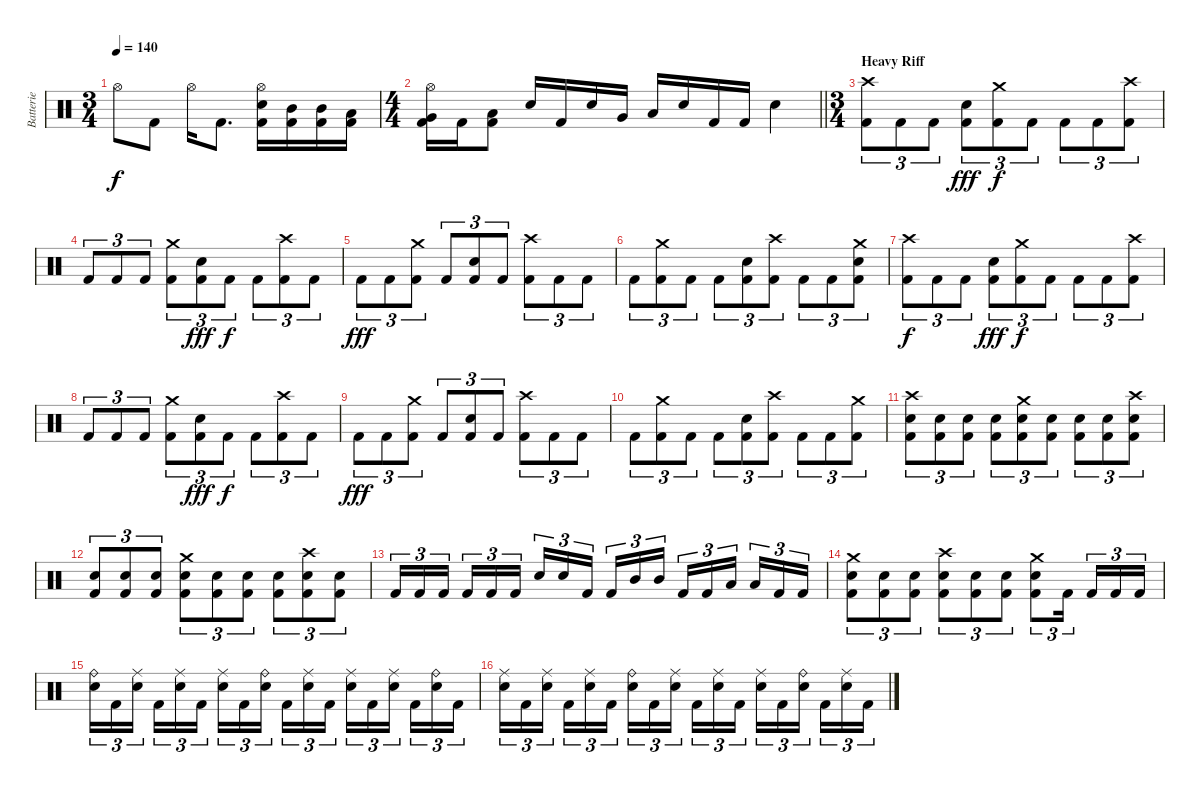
\track ("Batterie" "Batterie") {instrument percussion}
\staff {score}
\articulation defaults
\ts (3 4)
\tempo 140
\clef neutral
\ks c "Hi-Hat (open)".8{dy f} "Kick (hit) 2".8 "Hi-Hat (open)".16 "Kick (hit) 2".8{d}
("Hi-Hat (open)" "Electric Snare (hit)" "Kick (hit) 2").16 ("Mid Tom (hit)" "Kick (hit) 2").16 ("Mid Tom (hit)" "Kick (hit) 2").16 ("Low Tom (hit)" "Kick (hit) 2").16 |
\ts (4 4)
\barLineRight lightlight
("Hi-Hat (open)" "Very Low Tom (hit)" "Kick (hit) 2").16 "Kick (hit) 2".16 ("Low Floor Tom (hit)" "Kick (hit) 2").8 "Electric Snare (hit)".16 "Kick (hit) 2".16 "Electric Snare (hit)".16 "Very Low Tom (hit)".16 "Low Floor Tom (hit)".16 "Electric Snare (hit)".16 "Kick (hit) 2".16 "Kick (hit) 2".16 "Electric Snare (hit)".4 |
\ts (3 4)
\section ("" "Heavy Riff")
("Crash high (hit)" "Kick (hit) 2").8{tu (3 2)} "Kick (hit) 2".8{tu (3 2)} "Kick (hit) 2".8{tu (3 2)} ("Electric Snare (hit)" "Kick (hit) 2").8{tu (3 2) dy fff} ("Crash medium (hit)" "Kick (hit) 2").8{tu (3 2) dy f} "Kick (hit) 2".8{tu (3 2)} "Kick (hit) 2".8{tu (3 2)} "Kick (hit) 2".8{tu (3 2)} ("Crash high (hit)" "Kick (hit) 2").8{tu (3 2)} |
"Kick (hit) 2".8{tu (3 2)} "Kick (hit) 2".8{tu (3 2)} "Kick (hit) 2".8{tu (3 2)} ("Crash medium (hit)" "Kick (hit) 2").8{tu (3 2)} ("Electric Snare (hit)" "Kick (hit) 2").8{tu (3 2) dy fff} "Kick (hit) 2".8{tu (3 2) dy f} "Kick (hit) 2".8{tu (3 2)} ("Crash high (hit)" "Kick (hit) 2").8{tu (3 2)} "Kick (hit) 2".8{tu (3 2)} |
"Kick (hit) 2".8{tu (3 2) dy fff} "Kick (hit) 2".8{tu (3 2)} ("Crash medium (hit)" "Kick (hit) 2").8{tu (3 2)} "Kick (hit) 2".8{tu (3 2)} ("Electric Snare (hit)" "Kick (hit) 2").8{tu (3 2)} "Kick (hit) 2".8{tu (3 2)} ("Crash high (hit)" "Kick (hit) 2").8{tu (3 2)} "Kick (hit) 2".8{tu (3 2)} "Kick (hit) 2".8{tu (3 2)} |
"Kick (hit) 2".8{tu (3 2)} ("Crash medium (hit)" "Kick (hit) 2").8{tu (3 2)} "Kick (hit) 2".8{tu (3 2)} "Kick (hit) 2".8{tu (3 2)} ("Electric Snare (hit)" "Kick (hit) 2").8{tu (3 2)} ("Crash high (hit)" "Kick (hit) 2").8{tu (3 2)} "Kick (hit) 2".8{tu (3 2)} "Kick (hit) 2".8{tu (3 2)} ("Crash medium (hit)" "Electric Snare (hit)" "Kick (hit) 2").8{tu (3 2)} |
("Crash high (hit)" "Kick (hit) 2").8{tu (3 2) dy f} "Kick (hit) 2".8{tu (3 2)} "Kick (hit) 2".8{tu (3 2)} ("Electric Snare (hit)" "Kick (hit) 2").8{tu (3 2) dy fff} ("Crash medium (hit)" "Kick (hit) 2").8{tu (3 2) dy f} "Kick (hit) 2".8{tu (3 2)} "Kick (hit) 2".8{tu (3 2)} "Kick (hit) 2".8{tu (3 2)} ("Crash high (hit)" "Kick (hit) 2").8{tu (3 2)} |
"Kick (hit) 2".8{tu (3 2)} "Kick (hit) 2".8{tu (3 2)} "Kick (hit) 2".8{tu (3 2)} ("Crash medium (hit)" "Kick (hit) 2").8{tu (3 2)} ("Electric Snare (hit)" "Kick (hit) 2").8{tu (3 2) dy fff} "Kick (hit) 2".8{tu (3 2) dy f} "Kick (hit) 2".8{tu (3 2)} ("Crash high (hit)" "Kick (hit) 2").8{tu (3 2)} "Kick (hit) 2".8{tu (3 2)} |
"Kick (hit) 2".8{tu (3 2) dy fff} "Kick (hit) 2".8{tu (3 2)} ("Crash medium (hit)" "Kick (hit) 2").8{tu (3 2)} "Kick (hit) 2".8{tu (3 2)} ("Electric Snare (hit)" "Kick (hit) 2").8{tu (3 2)} "Kick (hit) 2".8{tu (3 2)} ("Crash high (hit)" "Kick (hit) 2").8{tu (3 2)} "Kick (hit) 2".8{tu (3 2)} "Kick (hit) 2".8{tu (3 2)} |
"Kick (hit) 2".8{tu (3 2)} ("Crash medium (hit)" "Kick (hit) 2").8{tu (3 2)} "Kick (hit) 2".8{tu (3 2)} "Kick (hit) 2".8{tu (3 2)} ("Electric Snare (hit)" "Kick (hit) 2").8{tu (3 2)} ("Crash high (hit)" "Kick (hit) 2").8{tu (3 2)} "Kick (hit) 2".8{tu (3 2)} "Kick (hit) 2".8{tu (3 2)} ("Crash medium (hit)" "Kick (hit) 2").8{tu (3 2)} |
("Crash high (hit)" "Electric Snare (hit)" "Kick (hit) 2").8{tu (3 2)} ("Electric Snare (hit)" "Kick (hit) 2").8{tu (3 2)} ("Electric Snare (hit)" "Kick (hit) 2").8{tu (3 2)} ("Electric Snare (hit)" "Kick (hit) 2").8{tu (3 2)} ("Crash medium (hit)" "Electric Snare (hit)" "Kick (hit) 2").8{tu (3 2)} ("Electric Snare (hit)" "Kick (hit) 2").8{tu (3 2)} ("Electric Snare (hit)" "Kick (hit) 2").8{tu (3 2)} ("Electric Snare (hit)" "Kick (hit) 2").8{tu (3 2)} ("Crash high (hit)" "Electric Snare (hit)" "Kick (hit) 2").8{tu (3 2)} |
("Electric Snare (hit)" "Kick (hit) 2").8{tu (3 2)} ("Electric Snare (hit)" "Kick (hit) 2").8{tu (3 2)} ("Electric Snare (hit)" "Kick (hit) 2").8{tu (3 2)} ("Crash medium (hit)" "Electric Snare (hit)" "Kick (hit) 2").8{tu (3 2)} ("Electric Snare (hit)" "Kick (hit) 2").8{tu (3 2)} ("Electric Snare (hit)" "Kick (hit) 2").8{tu (3 2)} ("Electric Snare (hit)" "Kick (hit) 2").8{tu (3 2)} ("Crash high (hit)" "Electric Snare (hit)" "Kick (hit) 2").8{tu (3 2)} ("Electric Snare (hit)" "Kick (hit) 2").8{tu (3 2)} |
"Kick (hit) 2".16{tu (3 2)} "Kick (hit) 2".16{tu (3 2)} "Kick (hit) 2".16{tu (3 2) beam splitsecondary} "Kick (hit) 2".16{tu (3 2)} "Kick (hit) 2".16{tu (3 2)} "Kick (hit) 2".16{tu (3 2)} "Electric Snare (hit)".16{tu (3 2)} "Electric Snare (hit)".16{tu (3 2)} "Kick (hit) 2".16{tu (3 2) beam splitsecondary} "Kick (hit) 2".16{tu (3 2)} "Mid Tom (hit)".16{tu (3 2)} "Mid Tom (hit)".16{tu (3 2)} "Kick (hit) 2".16{tu (3 2)} "Kick (hit) 2".16{tu (3 2)} "Low Tom (hit)".16{tu (3 2) beam splitsecondary} "Low Tom (hit)".16{tu (3 2)} "Kick (hit) 2".16{tu (3 2)} "Kick (hit) 2".16{tu (3 2)} |
("Crash medium (hit)" "Electric Snare (hit)" "Kick (hit) 2").8{tu (3 2)} ("Electric Snare (hit)" "Kick (hit) 2").8{tu (3 2)} ("Electric Snare (hit)" "Kick (hit) 2").8{tu (3 2)} ("Crash high (hit)" "Electric Snare (hit)" "Kick (hit) 2").8{tu (3 2)} ("Electric Snare (hit)" "Kick (hit) 2").8{tu (3 2)} ("Electric Snare (hit)" "Kick (hit) 2").8{tu (3 2)} ("Crash medium (hit)" "Electric Snare (hit)" "Kick (hit) 2").8{tu (3 2)} "Kick (hit) 2".16{tu (3 2) beam splitsecondary} "Kick (hit) 2".16{tu (3 2)} "Kick (hit) 2".16{tu (3 2)} "Kick (hit) 2".16{tu (3 2)} |
("Ride (bell)" "Electric Snare (hit)").16{tu (3 2)} "Kick (hit) 2".16{tu (3 2)} ("Ride (middle)" "Electric Snare (hit)").16{tu (3 2) beam splitsecondary} "Kick (hit) 2".16{tu (3 2)} ("Ride (middle)" "Electric Snare (hit)").16{tu (3 2)} "Kick (hit) 2".16{tu (3 2)} ("Ride (middle)" "Electric Snare (hit)").16{tu (3 2)} "Kick (hit) 2".16{tu (3 2)} ("Ride (bell)" "Electric Snare (hit)").16{tu (3 2) beam splitsecondary} "Kick (hit) 2".16{tu (3 2)} ("Ride (middle)" "Electric Snare (hit)").16{tu (3 2)} "Kick (hit) 2".16{tu (3 2)} ("Ride (middle)" "Electric Snare (hit)").16{tu (3 2)} "Kick (hit) 2".16{tu (3 2)} ("Ride (middle)" "Electric Snare (hit)").16{tu (3 2) beam splitsecondary} "Kick (hit) 2".16{tu (3 2)} ("Ride (bell)" "Electric Snare (hit)").16{tu (3 2)} "Kick (hit) 2".16{tu (3 2)} |
("Ride (middle)" "Electric Snare (hit)").16{tu (3 2)} "Kick (hit) 2".16{tu (3 2)} ("Ride (middle)" "Electric Snare (hit)").16{tu (3 2) beam splitsecondary} "Kick (hit) 2".16{tu (3 2)} ("Ride (middle)" "Electric Snare (hit)").16{tu (3 2)} "Kick (hit) 2".16{tu (3 2)} ("Ride (bell)" "Electric Snare (hit)").16{tu (3 2)} "Kick (hit) 2".16{tu (3 2)} ("Ride (middle)" "Electric Snare (hit)").16{tu (3 2) beam splitsecondary} "Kick (hit) 2".16{tu (3 2)} ("Ride (middle)" "Electric Snare (hit)").16{tu (3 2)} "Kick (hit) 2".16{tu (3 2)} ("Ride (middle)" "Electric Snare (hit)").16{tu (3 2)} "Kick (hit) 2".16{tu (3 2)} ("Ride (bell)" "Electric Snare (hit)").16{tu (3 2) beam splitsecondary} "Kick (hit) 2".16{tu (3 2)} ("Ride (middle)" "Electric Snare (hit)").16{tu (3 2)} "Kick (hit) 2".16{tu (3 2)}
